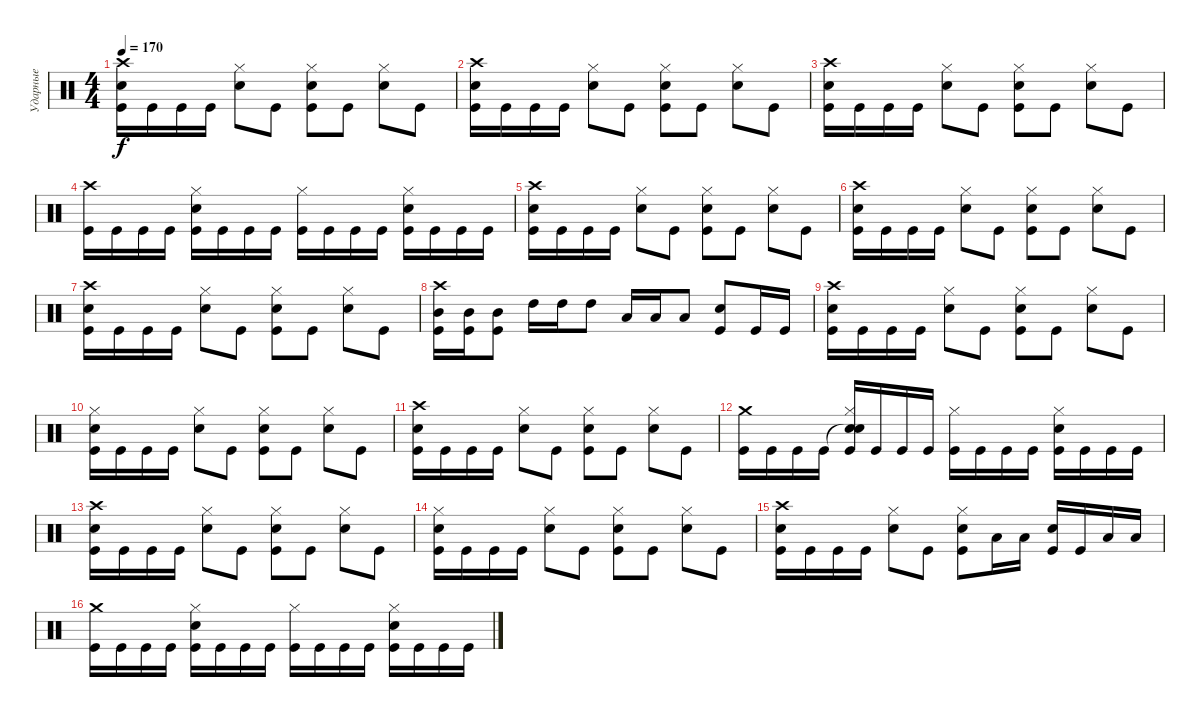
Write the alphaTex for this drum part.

\track ("Ударные" "Ударные") {instrument percussion}
\staff {score}
\articulation defaults
\ts (4 4)
\tempo 170
\clef neutral
\ks c
("Crash high (hit)" "Electric Snare (hit)" "Kick (hit)").16{dy f} "Kick (hit)".16 "Kick (hit)".16 "Kick (hit)".16 ("Hi-Hat (closed)" "Electric Snare (hit)").8 "Kick (hit)".8 ("Hi-Hat (closed)" "Electric Snare (hit)" "Kick (hit)").8 "Kick (hit)".8 ("Hi-Hat (closed)" "Electric Snare (hit)").8 "Kick (hit)".8 |
("Crash high (hit)" "Electric Snare (hit)" "Kick (hit)").16 "Kick (hit)".16 "Kick (hit)".16 "Kick (hit)".16 ("Hi-Hat (closed)" "Electric Snare (hit)").8 "Kick (hit)".8 ("Hi-Hat (closed)" "Electric Snare (hit)" "Kick (hit)").8 "Kick (hit)".8 ("Hi-Hat (closed)" "Electric Snare (hit)").8 "Kick (hit)".8 |
("Crash high (hit)" "Electric Snare (hit)" "Kick (hit)").16 "Kick (hit)".16 "Kick (hit)".16 "Kick (hit)".16 ("Hi-Hat (closed)" "Electric Snare (hit)").8 "Kick (hit)".8 ("Hi-Hat (closed)" "Electric Snare (hit)" "Kick (hit)").8 "Kick (hit)".8 ("Hi-Hat (closed)" "Electric Snare (hit)").8 "Kick (hit)".8 |
("Crash high (hit)" "Kick (hit)").16 "Kick (hit)".16 "Kick (hit)".16 "Kick (hit)".16 ("Hi-Hat (closed)" "Electric Snare (hit)" "Kick (hit)").16 "Kick (hit)".16 "Kick (hit)".16 "Kick (hit)".16 ("Hi-Hat (closed)" "Kick (hit)").16 "Kick (hit)".16 "Kick (hit)".16 "Kick (hit)".16 ("Hi-Hat (closed)" "Electric Snare (hit)" "Kick (hit)").16 "Kick (hit)".16 "Kick (hit)".16 "Kick (hit)".16 |
("Crash high (hit)" "Electric Snare (hit)" "Kick (hit)").16 "Kick (hit)".16 "Kick (hit)".16 "Kick (hit)".16 ("Hi-Hat (closed)" "Electric Snare (hit)").8 "Kick (hit)".8 ("Hi-Hat (closed)" "Electric Snare (hit)" "Kick (hit)").8 "Kick (hit)".8 ("Hi-Hat (closed)" "Electric Snare (hit)").8 "Kick (hit)".8 |
("Crash high (hit)" "Electric Snare (hit)" "Kick (hit)").16 "Kick (hit)".16 "Kick (hit)".16 "Kick (hit)".16 ("Hi-Hat (closed)" "Electric Snare (hit)").8 "Kick (hit)".8 ("Hi-Hat (closed)" "Electric Snare (hit)" "Kick (hit)").8 "Kick (hit)".8 ("Hi-Hat (closed)" "Electric Snare (hit)").8 "Kick (hit)".8 |
("Crash high (hit)" "Electric Snare (hit)" "Kick (hit)").16 "Kick (hit)".16 "Kick (hit)".16 "Kick (hit)".16 ("Hi-Hat (closed)" "Electric Snare (hit)").8 "Kick (hit)".8 ("Hi-Hat (closed)" "Electric Snare (hit)" "Kick (hit)").8 "Kick (hit)".8 ("Hi-Hat (closed)" "Electric Snare (hit)").8 "Kick (hit)".8 |
("Crash high (hit)" "Mid Tom (hit)" "Kick (hit)").16 ("Mid Tom (hit)" "Kick (hit)").16 ("Mid Tom (hit)" "Kick (hit)").8 "High Tom (hit)".16 "High Tom (hit)".16 "High Tom (hit)".8 "Low Tom (hit)".16 "Low Tom (hit)".16 "Low Tom (hit)".8 ("Electric Snare (hit)" "Kick (hit)").8 "Kick (hit)".16 "Kick (hit)".16 |
("Crash high (hit)" "Electric Snare (hit)" "Kick (hit)").16 "Kick (hit)".16 "Kick (hit)".16 "Kick (hit)".16 ("Hi-Hat (closed)" "Electric Snare (hit)").8 "Kick (hit)".8 ("Hi-Hat (closed)" "Electric Snare (hit)" "Kick (hit)").8 "Kick (hit)".8 ("Hi-Hat (closed)" "Electric Snare (hit)").8 "Kick (hit)".8 |
("Hi-Hat (closed)" "Electric Snare (hit)" "Kick (hit)").16 "Kick (hit)".16 "Kick (hit)".16 "Kick (hit)".16 ("Hi-Hat (closed)" "Electric Snare (hit)").8 "Kick (hit)".8 ("Hi-Hat (closed)" "Electric Snare (hit)" "Kick (hit)").8 "Kick (hit)".8 ("Hi-Hat (closed)" "Electric Snare (hit)").8 "Kick (hit)".8 |
("Crash high (hit)" "Electric Snare (hit)" "Kick (hit)").16 "Kick (hit)".16 "Kick (hit)".16 "Kick (hit)".16 ("Hi-Hat (closed)" "Electric Snare (hit)").8 "Kick (hit)".8 ("Hi-Hat (closed)" "Electric Snare (hit)" "Kick (hit)").8 "Kick (hit)".8 ("Hi-Hat (closed)" "Electric Snare (hit)").8 "Kick (hit)".8 |
("Crash medium (hit)" "Kick (hit)").16 "Kick (hit)".16 "Kick (hit)".16 "Kick (hit)".16 ("Snare (hit)"{t} "Hi-Hat (closed)" "Electric Snare (hit)" "Kick (hit)").16 "Kick (hit)".16 "Kick (hit)".16 "Kick (hit)".16 ("Hi-Hat (closed)" "Kick (hit)").16 "Kick (hit)".16 "Kick (hit)".16 "Kick (hit)".16 ("Hi-Hat (closed)" "Electric Snare (hit)" "Kick (hit)").16 "Kick (hit)".16 "Kick (hit)".16 "Kick (hit)".16 |
("Crash high (hit)" "Electric Snare (hit)" "Kick (hit)").16 "Kick (hit)".16 "Kick (hit)".16 "Kick (hit)".16 ("Hi-Hat (closed)" "Electric Snare (hit)").8 "Kick (hit)".8 ("Hi-Hat (closed)" "Electric Snare (hit)" "Kick (hit)").8 "Kick (hit)".8 ("Hi-Hat (closed)" "Electric Snare (hit)").8 "Kick (hit)".8 |
("Hi-Hat (closed)" "Electric Snare (hit)" "Kick (hit)").16 "Kick (hit)".16 "Kick (hit)".16 "Kick (hit)".16 ("Hi-Hat (closed)" "Electric Snare (hit)").8 "Kick (hit)".8 ("Hi-Hat (closed)" "Electric Snare (hit)" "Kick (hit)").8 "Kick (hit)".8 ("Hi-Hat (closed)" "Electric Snare (hit)").8 "Kick (hit)".8 |
("Crash high (hit)" "Electric Snare (hit)" "Kick (hit)").16 "Kick (hit)".16 "Kick (hit)".16 "Kick (hit)".16 ("Hi-Hat (closed)" "Electric Snare (hit)").8 "Kick (hit)".8 ("Hi-Hat (closed)" "Electric Snare (hit)" "Kick (hit)").8 "Low Tom (hit)".16 "Low Tom (hit)".16 ("Electric Snare (hit)" "Kick (hit)").16 "Kick (hit)".16 "Low Tom (hit)".16 "Low Tom (hit)".16 |
("Crash medium (hit)" "Kick (hit)").16 "Kick (hit)".16 "Kick (hit)".16 "Kick (hit)".16 ("Hi-Hat (closed)" "Electric Snare (hit)" "Kick (hit)").16 "Kick (hit)".16 "Kick (hit)".16 "Kick (hit)".16 ("Hi-Hat (closed)" "Kick (hit)").16 "Kick (hit)".16 "Kick (hit)".16 "Kick (hit)".16 ("Hi-Hat (closed)" "Electric Snare (hit)" "Kick (hit)").16 "Kick (hit)".16 "Kick (hit)".16 "Kick (hit)".16
